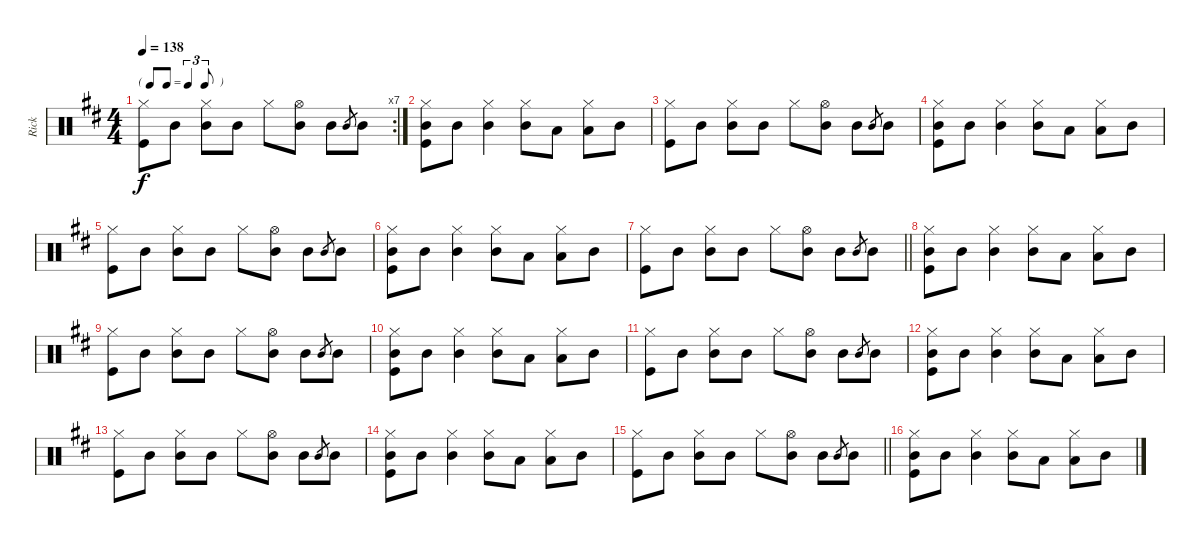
\track ("Rick" "Rick") {instrument percussion}
\staff {score}
\articulation defaults
\rc 7
\ts (4 4)
\tf triplet8th
\tempo 138
\clef neutral
\ks d
("Hi-Hat (closed)" "Kick (hit)").8{dy f} "Mid Tom (hit)".8 ("Hi-Hat (closed)" "Mid Tom (hit)").8 "Mid Tom (hit)".8 "Hi-Hat (closed)".8 ("Hi-Hat (open)" "Mid Tom (hit)").8 "Mid Tom (hit)".8 "Mid Tom (hit)".8{gr} "Mid Tom (hit)".8 |
("Hi-Hat (closed)" "Mid Tom (hit)" "Kick (hit)").8 "Mid Tom (hit)".8 ("Hi-Hat (closed)" "Mid Tom (hit)").4 ("Hi-Hat (closed)" "Mid Tom (hit)").8 "Low Tom (hit)".8 ("Hi-Hat (closed)" "Low Tom (hit)").8 "Mid Tom (hit)".8 |
("Hi-Hat (closed)" "Kick (hit)").8 "Mid Tom (hit)".8 ("Hi-Hat (closed)" "Mid Tom (hit)").8 "Mid Tom (hit)".8 "Hi-Hat (closed)".8 ("Hi-Hat (open)" "Mid Tom (hit)").8 "Mid Tom (hit)".8 "Mid Tom (hit)".8{gr} "Mid Tom (hit)".8 |
("Hi-Hat (closed)" "Mid Tom (hit)" "Kick (hit)").8 "Mid Tom (hit)".8 ("Hi-Hat (closed)" "Mid Tom (hit)").4 ("Hi-Hat (closed)" "Mid Tom (hit)").8 "Low Tom (hit)".8 ("Hi-Hat (closed)" "Low Tom (hit)").8 "Mid Tom (hit)".8 |
("Hi-Hat (closed)" "Kick (hit)").8 "Mid Tom (hit)".8 ("Hi-Hat (closed)" "Mid Tom (hit)").8 "Mid Tom (hit)".8 "Hi-Hat (closed)".8 ("Hi-Hat (open)" "Mid Tom (hit)").8 "Mid Tom (hit)".8 "Mid Tom (hit)".8{gr} "Mid Tom (hit)".8 |
("Hi-Hat (closed)" "Mid Tom (hit)" "Kick (hit)").8 "Mid Tom (hit)".8 ("Hi-Hat (closed)" "Mid Tom (hit)").4 ("Hi-Hat (closed)" "Mid Tom (hit)").8 "Low Tom (hit)".8 ("Hi-Hat (closed)" "Low Tom (hit)").8 "Mid Tom (hit)".8 |
\barLineRight lightlight
("Hi-Hat (closed)" "Kick (hit)").8 "Mid Tom (hit)".8 ("Hi-Hat (closed)" "Mid Tom (hit)").8 "Mid Tom (hit)".8 "Hi-Hat (closed)".8 ("Hi-Hat (open)" "Mid Tom (hit)").8 "Mid Tom (hit)".8 "Mid Tom (hit)".8{gr} "Mid Tom (hit)".8 |
("Hi-Hat (closed)" "Mid Tom (hit)" "Kick (hit)").8 "Mid Tom (hit)".8 ("Hi-Hat (closed)" "Mid Tom (hit)").4 ("Hi-Hat (closed)" "Mid Tom (hit)").8 "Low Tom (hit)".8 ("Hi-Hat (closed)" "Low Tom (hit)").8 "Mid Tom (hit)".8 |
("Hi-Hat (closed)" "Kick (hit)").8 "Mid Tom (hit)".8 ("Hi-Hat (closed)" "Mid Tom (hit)").8 "Mid Tom (hit)".8 "Hi-Hat (closed)".8 ("Hi-Hat (open)" "Mid Tom (hit)").8 "Mid Tom (hit)".8 "Mid Tom (hit)".8{gr} "Mid Tom (hit)".8 |
("Hi-Hat (closed)" "Mid Tom (hit)" "Kick (hit)").8 "Mid Tom (hit)".8 ("Hi-Hat (closed)" "Mid Tom (hit)").4 ("Hi-Hat (closed)" "Mid Tom (hit)").8 "Low Tom (hit)".8 ("Hi-Hat (closed)" "Low Tom (hit)").8 "Mid Tom (hit)".8 |
("Hi-Hat (closed)" "Kick (hit)").8 "Mid Tom (hit)".8 ("Hi-Hat (closed)" "Mid Tom (hit)").8 "Mid Tom (hit)".8 "Hi-Hat (closed)".8 ("Hi-Hat (open)" "Mid Tom (hit)").8 "Mid Tom (hit)".8 "Mid Tom (hit)".8{gr} "Mid Tom (hit)".8 |
("Hi-Hat (closed)" "Mid Tom (hit)" "Kick (hit)").8 "Mid Tom (hit)".8 ("Hi-Hat (closed)" "Mid Tom (hit)").4 ("Hi-Hat (closed)" "Mid Tom (hit)").8 "Low Tom (hit)".8 ("Hi-Hat (closed)" "Low Tom (hit)").8 "Mid Tom (hit)".8 |
("Hi-Hat (closed)" "Kick (hit)").8 "Mid Tom (hit)".8 ("Hi-Hat (closed)" "Mid Tom (hit)").8 "Mid Tom (hit)".8 "Hi-Hat (closed)".8 ("Hi-Hat (open)" "Mid Tom (hit)").8 "Mid Tom (hit)".8 "Mid Tom (hit)".8{gr} "Mid Tom (hit)".8 |
("Hi-Hat (closed)" "Mid Tom (hit)" "Kick (hit)").8 "Mid Tom (hit)".8 ("Hi-Hat (closed)" "Mid Tom (hit)").4 ("Hi-Hat (closed)" "Mid Tom (hit)").8 "Low Tom (hit)".8 ("Hi-Hat (closed)" "Low Tom (hit)").8 "Mid Tom (hit)".8 |
\barLineRight lightlight
("Hi-Hat (closed)" "Kick (hit)").8 "Mid Tom (hit)".8 ("Hi-Hat (closed)" "Mid Tom (hit)").8 "Mid Tom (hit)".8 "Hi-Hat (closed)".8 ("Hi-Hat (open)" "Mid Tom (hit)").8 "Mid Tom (hit)".8 "Mid Tom (hit)".8{gr} "Mid Tom (hit)".8 |
("Hi-Hat (closed)" "Mid Tom (hit)" "Kick (hit)").8 "Mid Tom (hit)".8 ("Hi-Hat (closed)" "Mid Tom (hit)").4 ("Hi-Hat (closed)" "Mid Tom (hit)").8 "Low Tom (hit)".8 ("Hi-Hat (closed)" "Low Tom (hit)").8 "Mid Tom (hit)".8
